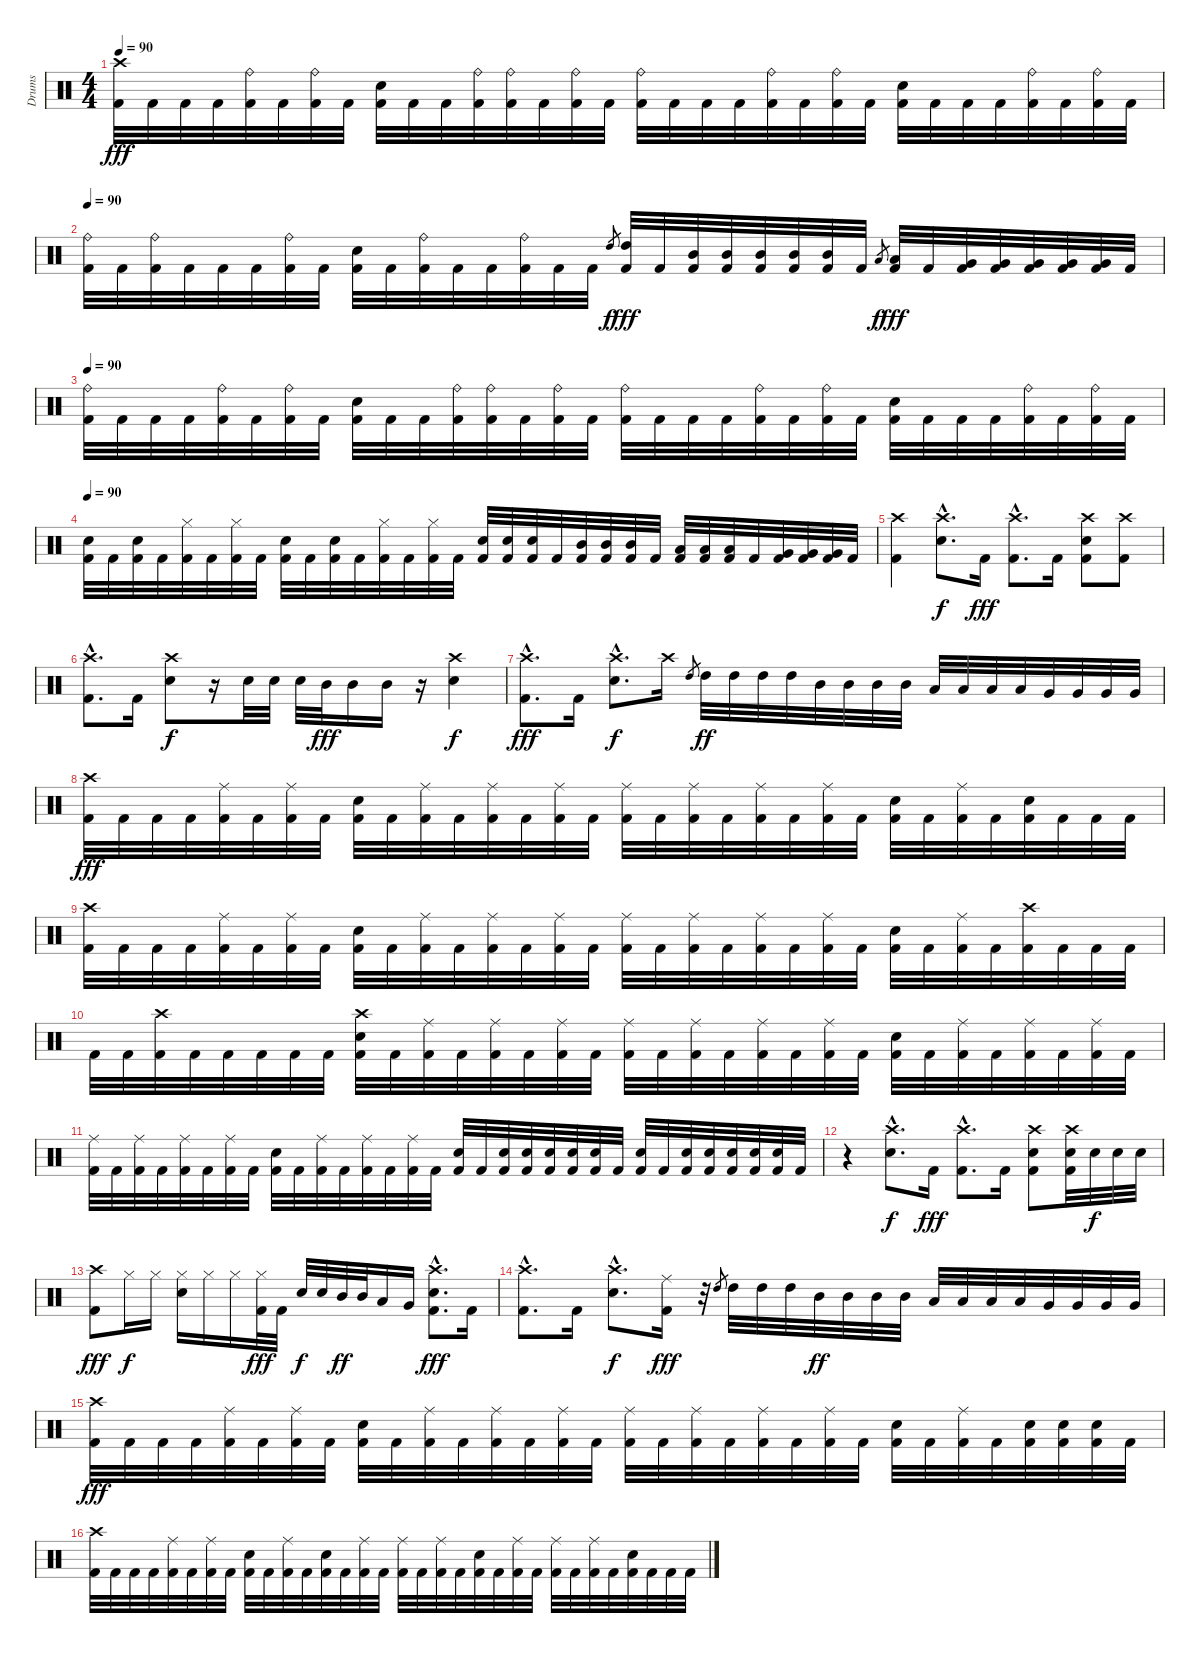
\track ("Drums" "Drums") {instrument percussion}
\staff {score}
\articulation defaults
\ts (4 4)
\tempo 90
\clef neutral
\ks c
("Crash high (hit)" "Kick (hit) 2").32{dy fff} "Kick (hit) 2".32 "Kick (hit) 2".32 "Kick (hit) 2".32 ("Ride (bell)" "Kick (hit) 2").32 "Kick (hit) 2".32 ("Ride (bell)" "Kick (hit) 2").32 "Kick (hit) 2".32 ("Snare (hit) 2" "Kick (hit) 2").32 "Kick (hit) 2".32 "Kick (hit) 2".32 ("Ride (bell)" "Kick (hit) 2").32 ("Ride (bell)" "Kick (hit) 2").32 "Kick (hit) 2".32 ("Ride (bell)" "Kick (hit) 2").32 "Kick (hit) 2".32 ("Ride (bell)" "Kick (hit) 2").32 "Kick (hit) 2".32 "Kick (hit) 2".32 "Kick (hit) 2".32 ("Ride (bell)" "Kick (hit) 2").32 "Kick (hit) 2".32 ("Ride (bell)" "Kick (hit) 2").32 "Kick (hit) 2".32 ("Snare (hit) 2" "Kick (hit) 2").32 "Kick (hit) 2".32 "Kick (hit) 2".32 "Kick (hit) 2".32 ("Ride (bell)" "Kick (hit) 2").32 "Kick (hit) 2".32 ("Ride (bell)" "Kick (hit) 2").32 "Kick (hit) 2".32 |
\tempo 90
("Ride (bell)" "Kick (hit) 2").32 "Kick (hit) 2".32 ("Ride (bell)" "Kick (hit) 2").32 "Kick (hit) 2".32 "Kick (hit) 2".32 "Kick (hit) 2".32 ("Ride (bell)" "Kick (hit) 2").32 "Kick (hit) 2".32 ("Snare (hit) 2" "Kick (hit) 2").32 "Kick (hit) 2".32 ("Ride (bell)" "Kick (hit) 2").32 "Kick (hit) 2".32 "Kick (hit) 2".32 ("Ride (bell)" "Kick (hit) 2").32 "Kick (hit) 2".32 "Kick (hit) 2".32 "High Tom (hit)".8{gr dy f} ("High Tom (hit)" "Kick (hit) 2").32{dy fff} "Kick (hit) 2".32 ("Mid Tom (hit)" "Kick (hit) 2").32 ("Mid Tom (hit)" "Kick (hit) 2").32 ("Mid Tom (hit)" "Kick (hit) 2").32 ("Mid Tom (hit)" "Kick (hit) 2").32 ("Mid Tom (hit)" "Kick (hit) 2").32 "Kick (hit) 2".32 "Low Tom (hit)".8{gr dy f} ("Low Tom (hit)" "Kick (hit) 2").32{dy fff} "Kick (hit) 2".32 ("Very Low Tom (hit)" "Kick (hit) 2").32 ("Very Low Tom (hit)" "Kick (hit) 2").32 ("Very Low Tom (hit)" "Kick (hit) 2").32 ("Very Low Tom (hit)" "Kick (hit) 2").32 ("Very Low Tom (hit)" "Kick (hit) 2").32 "Kick (hit) 2".32 |
\tempo 90
("Ride (bell)" "Kick (hit) 2").32 "Kick (hit) 2".32 "Kick (hit) 2".32 "Kick (hit) 2".32 ("Ride (bell)" "Kick (hit) 2").32 "Kick (hit) 2".32 ("Ride (bell)" "Kick (hit) 2").32 "Kick (hit) 2".32 ("Snare (hit) 2" "Kick (hit) 2").32 "Kick (hit) 2".32 "Kick (hit) 2".32 ("Ride (bell)" "Kick (hit) 2").32 ("Ride (bell)" "Kick (hit) 2").32 "Kick (hit) 2".32 ("Ride (bell)" "Kick (hit) 2").32 "Kick (hit) 2".32 ("Ride (bell)" "Kick (hit) 2").32 "Kick (hit) 2".32 "Kick (hit) 2".32 "Kick (hit) 2".32 ("Ride (bell)" "Kick (hit) 2").32 "Kick (hit) 2".32 ("Ride (bell)" "Kick (hit) 2").32 "Kick (hit) 2".32 ("Snare (hit) 2" "Kick (hit) 2").32 "Kick (hit) 2".32 "Kick (hit) 2".32 "Kick (hit) 2".32 ("Ride (bell)" "Kick (hit) 2").32 "Kick (hit) 2".32 ("Ride (bell)" "Kick (hit) 2").32 "Kick (hit) 2".32 |
\tempo 90
("Snare (hit) 2" "Kick (hit) 2").32 "Kick (hit) 2".32 ("Snare (hit) 2" "Kick (hit) 2").32 "Kick (hit) 2".32 ("Hi-Hat (closed)" "Kick (hit) 2").32 "Kick (hit) 2".32 ("Hi-Hat (closed)" "Kick (hit) 2").32 "Kick (hit) 2".32 ("Snare (hit) 2" "Kick (hit) 2").32 "Kick (hit) 2".32 ("Snare (hit) 2" "Kick (hit) 2").32 "Kick (hit) 2".32 ("Hi-Hat (closed)" "Kick (hit) 2").32 "Kick (hit) 2".32 ("Hi-Hat (closed)" "Kick (hit) 2").32 "Kick (hit) 2".32 ("Snare (hit) 2" "Kick (hit) 2").32 ("Snare (hit) 2" "Kick (hit) 2").32 ("Snare (hit) 2" "Kick (hit) 2").32 "Kick (hit) 2".32 ("Mid Tom (hit)" "Kick (hit) 2").32 ("Mid Tom (hit)" "Kick (hit) 2").32 ("Mid Tom (hit)" "Kick (hit) 2").32 "Kick (hit) 2".32 ("Low Tom (hit)" "Kick (hit) 2").32 ("Low Tom (hit)" "Kick (hit) 2").32 ("Low Tom (hit)" "Kick (hit) 2").32 "Kick (hit) 2".32 ("Very Low Tom (hit)" "Kick (hit) 2").32 ("Very Low Tom (hit)" "Kick (hit) 2").32 ("Very Low Tom (hit)" "Kick (hit) 2").32 "Kick (hit) 2".32 |
("Crash high (hit)" "Kick (hit) 2").4 ("Crash high (hit)"{hac} "Snare (hit) 2"{hac}).8{d dy f} "Kick (hit) 2".16{dy fff} ("Crash high (hit)"{hac} "Kick (hit) 2"{hac}).8{d} "Kick (hit) 2".16 ("Crash high (hit)" "Snare (hit) 2" "Kick (hit) 2").8 ("Crash high (hit)" "Kick (hit) 2").8 |
("Crash high (hit)"{hac} "Kick (hit) 2"{hac}).8{d} "Kick (hit) 2".16 ("Crash high (hit)" "Snare (hit) 2").8{dy f} r.16 "Snare (hit) 2".32 "Snare (hit) 2".32 "Snare (hit) 2".32 "Mid Tom (hit)".32{dy fff} "Mid Tom (hit)".16 "Mid Tom (hit)".16 r.16 ("Crash high (hit)" "Snare (hit) 2").4{dy f} |
("Crash high (hit)"{hac} "Kick (hit) 2"{hac}).8{d dy fff} "Kick (hit) 2".16 ("Crash high (hit)"{hac} "Snare (hit) 2"{hac}).8{d dy f} "Crash high (hit)".16 "High Tom (hit)".8{gr} "High Tom (hit)".32{dy ff} "High Tom (hit)".32 "High Tom (hit)".32 "High Tom (hit)".32 "Mid Tom (hit)".32 "Mid Tom (hit)".32 "Mid Tom (hit)".32 "Mid Tom (hit)".32 "Low Tom (hit)".32 "Low Tom (hit)".32 "Low Tom (hit)".32 "Low Tom (hit)".32 "Very Low Tom (hit)".32 "Very Low Tom (hit)".32 "Very Low Tom (hit)".32 "Very Low Tom (hit)".32 |
("Crash high (hit)" "Kick (hit) 2").32{dy fff} "Kick (hit) 2".32 "Kick (hit) 2".32 "Kick (hit) 2".32 ("Ride (middle)" "Kick (hit) 2").32 "Kick (hit) 2".32 ("Ride (middle)" "Kick (hit) 2").32 "Kick (hit) 2".32 ("Snare (hit) 2" "Kick (hit) 2").32 "Kick (hit) 2".32 ("Ride (middle)" "Kick (hit) 2").32 "Kick (hit) 2".32 ("Ride (middle)" "Kick (hit) 2").32 "Kick (hit) 2".32 ("Ride (middle)" "Kick (hit) 2").32 "Kick (hit) 2".32 ("Ride (middle)" "Kick (hit) 2").32 "Kick (hit) 2".32 ("Ride (middle)" "Kick (hit) 2").32 "Kick (hit) 2".32 ("Ride (middle)" "Kick (hit) 2").32 "Kick (hit) 2".32 ("Ride (middle)" "Kick (hit) 2").32 "Kick (hit) 2".32 ("Snare (hit) 2" "Kick (hit) 2").32 "Kick (hit) 2".32 ("Ride (middle)" "Kick (hit) 2").32 "Kick (hit) 2".32 ("Snare (hit) 2" "Kick (hit) 2").32 "Kick (hit) 2".32 "Kick (hit) 2".32 "Kick (hit) 2".32 |
("Crash high (hit)" "Kick (hit) 2").32 "Kick (hit) 2".32 "Kick (hit) 2".32 "Kick (hit) 2".32 ("Ride (middle)" "Kick (hit) 2").32 "Kick (hit) 2".32 ("Ride (middle)" "Kick (hit) 2").32 "Kick (hit) 2".32 ("Snare (hit) 2" "Kick (hit) 2").32 "Kick (hit) 2".32 ("Ride (middle)" "Kick (hit) 2").32 "Kick (hit) 2".32 ("Ride (middle)" "Kick (hit) 2").32 "Kick (hit) 2".32 ("Ride (middle)" "Kick (hit) 2").32 "Kick (hit) 2".32 ("Ride (middle)" "Kick (hit) 2").32 "Kick (hit) 2".32 ("Ride (middle)" "Kick (hit) 2").32 "Kick (hit) 2".32 ("Ride (middle)" "Kick (hit) 2").32 "Kick (hit) 2".32 ("Ride (middle)" "Kick (hit) 2").32 "Kick (hit) 2".32 ("Snare (hit) 2" "Kick (hit) 2").32 "Kick (hit) 2".32 ("Ride (middle)" "Kick (hit) 2").32 "Kick (hit) 2".32 ("Crash high (hit)" "Kick (hit) 2").32 "Kick (hit) 2".32 "Kick (hit) 2".32 "Kick (hit) 2".32 |
"Kick (hit) 2".32 "Kick (hit) 2".32 ("Crash high (hit)" "Kick (hit) 2").32 "Kick (hit) 2".32 "Kick (hit) 2".32 "Kick (hit) 2".32 "Kick (hit) 2".32 "Kick (hit) 2".32 ("Crash high (hit)" "Snare (hit) 2" "Kick (hit) 2").32 "Kick (hit) 2".32 ("Ride (middle)" "Kick (hit) 2").32 "Kick (hit) 2".32 ("Ride (middle)" "Kick (hit) 2").32 "Kick (hit) 2".32 ("Ride (middle)" "Kick (hit) 2").32 "Kick (hit) 2".32 ("Ride (middle)" "Kick (hit) 2").32 "Kick (hit) 2".32 ("Ride (middle)" "Kick (hit) 2").32 "Kick (hit) 2".32 ("Ride (middle)" "Kick (hit) 2").32 "Kick (hit) 2".32 ("Ride (middle)" "Kick (hit) 2").32 "Kick (hit) 2".32 ("Snare (hit) 2" "Kick (hit) 2").32 "Kick (hit) 2".32 ("Ride (middle)" "Kick (hit) 2").32 "Kick (hit) 2".32 ("Ride (middle)" "Kick (hit) 2").32 "Kick (hit) 2".32 ("Ride (middle)" "Kick (hit) 2").32 "Kick (hit) 2".32 |
("Ride (middle)" "Kick (hit) 2").32 "Kick (hit) 2".32 ("Ride (middle)" "Kick (hit) 2").32 "Kick (hit) 2".32 ("Ride (middle)" "Kick (hit) 2").32 "Kick (hit) 2".32 ("Ride (middle)" "Kick (hit) 2").32 "Kick (hit) 2".32 ("Snare (hit) 2" "Kick (hit) 2").32 "Kick (hit) 2".32 ("Ride (middle)" "Kick (hit) 2").32 "Kick (hit) 2".32 ("Ride (middle)" "Kick (hit) 2").32 "Kick (hit) 2".32 ("Ride (middle)" "Kick (hit) 2").32 "Kick (hit) 2".32 ("Snare (hit) 2" "Kick (hit) 2").32 "Kick (hit) 2".32 ("Snare (hit) 2" "Kick (hit) 2").32 ("Snare (hit) 2" "Kick (hit) 2").32 ("Snare (hit) 2" "Kick (hit) 2").32 ("Snare (hit) 2" "Kick (hit) 2").32 ("Snare (hit) 2" "Kick (hit) 2").32 "Kick (hit) 2".32 ("Snare (hit) 2" "Kick (hit) 2").32 "Kick (hit) 2".32 ("Snare (hit) 2" "Kick (hit) 2").32 ("Snare (hit) 2" "Kick (hit) 2").32 ("Snare (hit) 2" "Kick (hit) 2").32 ("Snare (hit) 2" "Kick (hit) 2").32 ("Snare (hit) 2" "Kick (hit) 2").32 "Kick (hit) 2".32 |
r.4 ("Crash high (hit)"{hac} "Snare (hit) 2"{hac}).8{d dy f} "Kick (hit) 2".16{dy fff} ("Crash high (hit)"{hac} "Kick (hit) 2"{hac}).8{d} "Kick (hit) 2".16 ("Crash high (hit)" "Snare (hit) 2" "Kick (hit) 2").8 ("Crash high (hit)" "Snare (hit) 2" "Kick (hit) 2").32 "Snare (hit) 2".32{dy f} "Snare (hit) 2".32 "Snare (hit) 2".32 |
("Crash high (hit)" "Kick (hit) 2").8{dy fff} "Hi-Hat (closed)".16{dy f} "Hi-Hat (closed)".16 ("Hi-Hat (closed)" "Snare (hit) 2").16 "Hi-Hat (closed)".16 "Hi-Hat (closed)".16 ("Hi-Hat (closed)" "Kick (hit) 2").32{dy fff} "Kick (hit) 2".32 "Snare (hit) 2".32{dy f} "Snare (hit) 2".32 "Mid Tom (hit)".32{dy ff} "Mid Tom (hit)".32 "Low Tom (hit)".16 "Very Low Tom (hit)".16 ("Crash high (hit)"{hac} "Snare (hit) 2"{hac} "Kick (hit) 2"{hac}).8{d dy fff} "Kick (hit) 2".16 |
("Crash high (hit)"{hac} "Kick (hit) 2"{hac}).8{d} "Kick (hit) 2".16 ("Crash high (hit)"{hac} "Snare (hit) 2"{hac}).8{d dy f} ("Ride (middle)" "Kick (hit) 2").16{dy fff} r.32 "High Tom (hit)".8{gr} "High Tom (hit)".32 "High Tom (hit)".32 "High Tom (hit)".32 "Mid Tom (hit)".32{dy ff} "Mid Tom (hit)".32 "Mid Tom (hit)".32 "Mid Tom (hit)".32 "Low Tom (hit)".32 "Low Tom (hit)".32 "Low Tom (hit)".32 "Low Tom (hit)".32 "Very Low Tom (hit)".32 "Very Low Tom (hit)".32 "Very Low Tom (hit)".32 "Very Low Tom (hit)".32 |
("Crash high (hit)" "Kick (hit) 2").32{dy fff} "Kick (hit) 2".32 "Kick (hit) 2".32 "Kick (hit) 2".32 ("Ride (middle)" "Kick (hit) 2").32 "Kick (hit) 2".32 ("Ride (middle)" "Kick (hit) 2").32 "Kick (hit) 2".32 ("Snare (hit) 2" "Kick (hit) 2").32 "Kick (hit) 2".32 ("Ride (middle)" "Kick (hit) 2").32 "Kick (hit) 2".32 ("Ride (middle)" "Kick (hit) 2").32 "Kick (hit) 2".32 ("Ride (middle)" "Kick (hit) 2").32 "Kick (hit) 2".32 ("Ride (middle)" "Kick (hit) 2").32 "Kick (hit) 2".32 ("Ride (middle)" "Kick (hit) 2").32 "Kick (hit) 2".32 ("Ride (middle)" "Kick (hit) 2").32 "Kick (hit) 2".32 ("Ride (middle)" "Kick (hit) 2").32 "Kick (hit) 2".32 ("Snare (hit) 2" "Kick (hit) 2").32 "Kick (hit) 2".32 ("Ride (middle)" "Kick (hit) 2").32 "Kick (hit) 2".32 ("Snare (hit) 2" "Kick (hit) 2").32 ("Snare (hit) 2" "Kick (hit) 2").32 ("Snare (hit) 2" "Kick (hit) 2").32 "Kick (hit) 2".32 |
("Crash high (hit)" "Kick (hit) 2").32 "Kick (hit) 2".32 "Kick (hit) 2".32 "Kick (hit) 2".32 ("Ride (middle)" "Kick (hit) 2").32 "Kick (hit) 2".32 ("Ride (middle)" "Kick (hit) 2").32 "Kick (hit) 2".32 ("Snare (hit) 2" "Kick (hit) 2").32 "Kick (hit) 2".32 ("Ride (middle)" "Kick (hit) 2").32 "Kick (hit) 2".32 ("Snare (hit) 2" "Kick (hit) 2").32 "Kick (hit) 2".32 ("Ride (middle)" "Kick (hit) 2").32 "Kick (hit) 2".32 ("Ride (middle)" "Kick (hit) 2").32 "Kick (hit) 2".32 ("Ride (middle)" "Kick (hit) 2").32 "Kick (hit) 2".32 ("Snare (hit) 2" "Kick (hit) 2").32 "Kick (hit) 2".32 ("Ride (middle)" "Kick (hit) 2").32 "Kick (hit) 2".32 ("Ride (middle)" "Kick (hit) 2").32 "Kick (hit) 2".32 ("Ride (middle)" "Kick (hit) 2").32 "Kick (hit) 2".32 ("Snare (hit) 2" "Kick (hit) 2").32 "Kick (hit) 2".32 "Kick (hit) 2".32 "Kick (hit) 2".32
